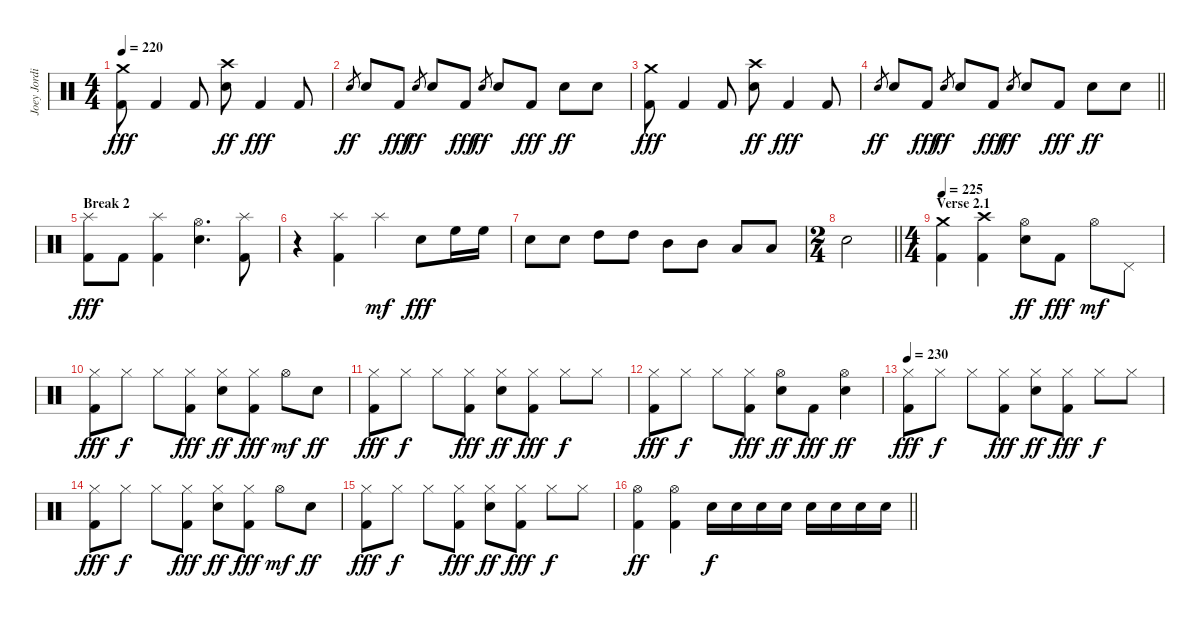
\track ("Joey Jordison" "Joey Jordi") {instrument percussion}
\staff {score}
\articulation defaults
\ts (4 4)
\tempo 220
\clef neutral
\ks c
("Crash medium (hit)" "Kick (hit) 2").8{dy fff} "Kick (hit) 2".4 "Kick (hit) 2".8 ("Crash high (hit)" "Electric Snare (hit)").8{dy ff} "Kick (hit) 2".4{dy fff} "Kick (hit) 2".8 |
"Electric Snare (hit)".8{gr dy ff} "Electric Snare (hit)".8 "Kick (hit) 2".8{dy fff} "Electric Snare (hit)".8{gr dy ff} "Electric Snare (hit)".8 "Kick (hit) 2".8{dy fff} "Electric Snare (hit)".8{gr dy ff} "Electric Snare (hit)".8 "Kick (hit) 2".8{dy fff} "Electric Snare (hit)".8{dy ff} "Electric Snare (hit)".8 |
("Crash medium (hit)" "Kick (hit) 2").8{dy fff} "Kick (hit) 2".4 "Kick (hit) 2".8 ("Crash high (hit)" "Electric Snare (hit)").8{dy ff} "Kick (hit) 2".4{dy fff} "Kick (hit) 2".8 |
\barLineRight lightlight "Electric Snare (hit)".8{gr dy ff} "Electric Snare (hit)".8 "Kick (hit) 2".8{dy fff} "Electric Snare (hit)".8{gr dy ff} "Electric Snare (hit)".8 "Kick (hit) 2".8{dy fff} "Electric Snare (hit)".8{gr dy ff} "Electric Snare (hit)".8 "Kick (hit) 2".8{dy fff} "Electric Snare (hit)".8{dy ff} "Electric Snare (hit)".8
|
\section ("" "Break 2")
("Splash (hit)" "Kick (hit) 2").8{dy fff} "Kick (hit) 2".8 ("Splash (hit)" "Kick (hit) 2").4 ("Hi-Hat (open)" "Electric Snare (hit)").4{d} ("Splash (hit)" "Kick (hit) 2").8 |
r.4 ("Splash (hit)" "Kick (hit) 2").4 "Splash (hit)".4{dy mf} "Electric Snare (hit)".8{dy fff} "High Floor Tom (hit)".16 "High Floor Tom (hit)".16 |
"Electric Snare (hit)".8 "Electric Snare (hit)".8 "High Tom (hit)".8 "High Tom (hit)".8 "Mid Tom (hit)".8 "Mid Tom (hit)".8 "Low Tom (hit)".8 "Low Tom (hit)".8 |
\ts (2 4)
\barLineRight lightlight "Electric Snare (hit)".2
|
\ts (4 4)
\section ("" "Verse 2.1")
\tempo 225
("Crash medium (hit)" "Kick (hit) 2").4 ("Crash high (hit)" "Kick (hit) 2").4 ("Hi-Hat (open)" "Electric Snare (hit)").8{dy ff} "Kick (hit) 2".8{dy fff} "Hi-Hat (open)".8{dy mf} "Pedal Hi-Hat (hit)".8 |
("Hi-Hat (closed)" "Kick (hit) 2").8{dy fff} "Hi-Hat (closed)".8{dy f} "Hi-Hat (closed)".8 ("Hi-Hat (closed)" "Kick (hit) 2").8{dy fff} ("Hi-Hat (closed)" "Electric Snare (hit)").8{dy ff} ("Hi-Hat (closed)" "Kick (hit) 2").8{dy fff} "Hi-Hat (open)".8{dy mf} "Electric Snare (hit)".8{dy ff} |
("Hi-Hat (closed)" "Kick (hit) 2").8{dy fff} "Hi-Hat (closed)".8{dy f} "Hi-Hat (closed)".8 ("Hi-Hat (closed)" "Kick (hit) 2").8{dy fff} ("Hi-Hat (closed)" "Electric Snare (hit)").8{dy ff} ("Hi-Hat (closed)" "Kick (hit) 2").8{dy fff} "Hi-Hat (closed)".8{dy f} "Hi-Hat (closed)".8 |
("Hi-Hat (closed)" "Kick (hit) 2").8{dy fff} "Hi-Hat (closed)".8{dy f} "Hi-Hat (closed)".8 ("Hi-Hat (closed)" "Kick (hit) 2").8{dy fff} ("Hi-Hat (open)" "Electric Snare (hit)").8{dy ff} "Kick (hit) 2".8{dy fff} ("Hi-Hat (open)" "Electric Snare (hit)").4{dy ff} |
\tempo 230
("Hi-Hat (closed)" "Kick (hit) 2").8{dy fff} "Hi-Hat (closed)".8{dy f} "Hi-Hat (closed)".8 ("Hi-Hat (closed)" "Kick (hit) 2").8{dy fff} ("Hi-Hat (closed)" "Electric Snare (hit)").8{dy ff} ("Hi-Hat (closed)" "Kick (hit) 2").8{dy fff} "Hi-Hat (closed)".8{dy f} "Hi-Hat (closed)".8 |
("Hi-Hat (closed)" "Kick (hit) 2").8{dy fff} "Hi-Hat (closed)".8{dy f} "Hi-Hat (closed)".8 ("Hi-Hat (closed)" "Kick (hit) 2").8{dy fff} ("Hi-Hat (closed)" "Electric Snare (hit)").8{dy ff} ("Hi-Hat (closed)" "Kick (hit) 2").8{dy fff} "Hi-Hat (open)".8{dy mf} "Electric Snare (hit)".8{dy ff} |
("Hi-Hat (closed)" "Kick (hit) 2").8{dy fff} "Hi-Hat (closed)".8{dy f} "Hi-Hat (closed)".8 ("Hi-Hat (closed)" "Kick (hit) 2").8{dy fff} ("Hi-Hat (closed)" "Electric Snare (hit)").8{dy ff} ("Hi-Hat (closed)" "Kick (hit) 2").8{dy fff} "Hi-Hat (closed)".8{dy f} "Hi-Hat (closed)".8 |
\barLineRight lightlight
("Hi-Hat (open)" "Kick (hit) 2").4{dy ff} ("Hi-Hat (open)" "Kick (hit) 2").4 "Electric Snare (hit)".16{dy f} "Electric Snare (hit)".16 "Electric Snare (hit)".16 "Electric Snare (hit)".16 "Electric Snare (hit)".16 "Electric Snare (hit)".16 "Electric Snare (hit)".16 "Electric Snare (hit)".16
